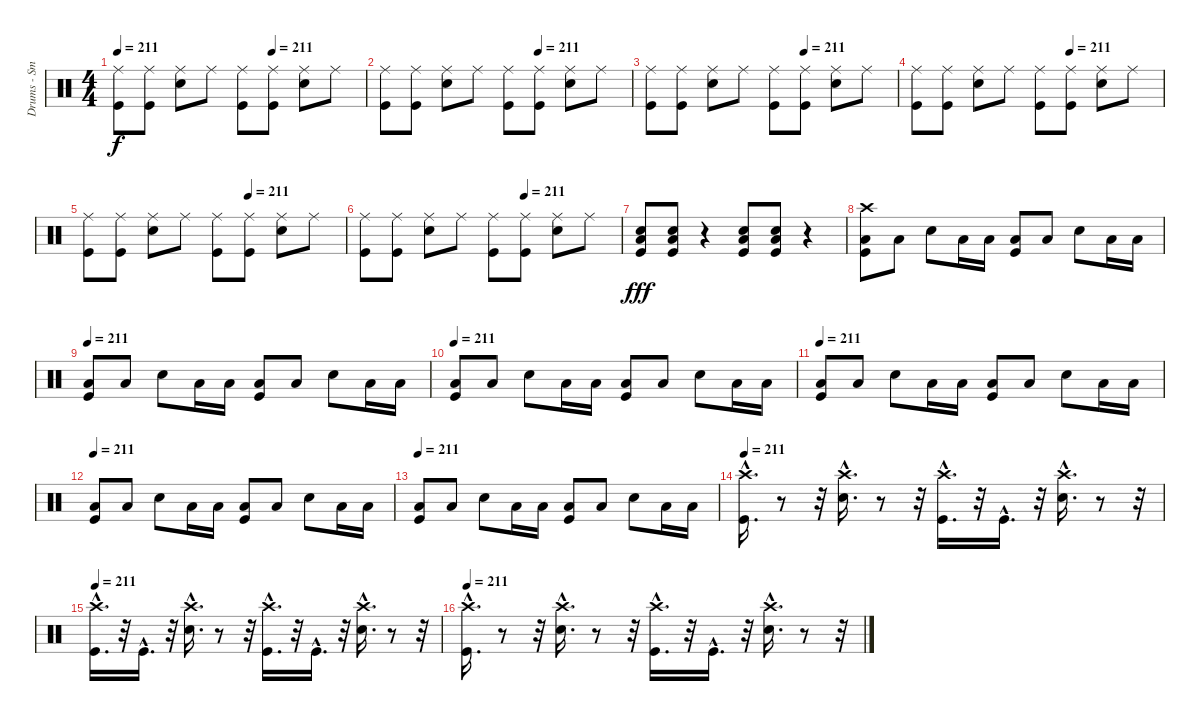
\track ("Drums - Smelly" "Drums - Sm") {instrument percussion}
\staff {score}
\articulation defaults
\ts (4 4)
\tempo 211
\tempo (211 0.625)
\clef neutral
\ks c
("Kick (hit)" "Ride (middle)").8{dy f} ("Ride (middle)" "Kick (hit)").8 ("Ride (middle)" "Electric Snare (hit)").8 "Ride (middle)".8 ("Ride (middle)" "Kick (hit)").8 ("Kick (hit)" "Ride (middle)").8 ("Electric Snare (hit)" "Ride (middle)").8 "Ride (middle)".8 |
\tempo (211 0.625)
("Kick (hit)" "Ride (middle)").8 ("Ride (middle)" "Kick (hit)").8 ("Electric Snare (hit)" "Ride (middle)").8 "Ride (middle)".8 ("Kick (hit)" "Ride (middle)").8 ("Kick (hit)" "Ride (middle)").8 ("Ride (middle)" "Electric Snare (hit)").8 "Ride (middle)".8 |
\tempo (211 0.625)
("Ride (middle)" "Kick (hit)").8 ("Kick (hit)" "Ride (middle)").8 ("Electric Snare (hit)" "Ride (middle)").8 "Ride (middle)".8 ("Kick (hit)" "Ride (middle)").8 ("Ride (middle)" "Kick (hit)").8 ("Electric Snare (hit)" "Ride (middle)").8 "Ride (middle)".8 |
\tempo (211 0.625)
("Kick (hit)" "Ride (middle)").8 ("Ride (middle)" "Kick (hit)").8 ("Electric Snare (hit)" "Ride (middle)").8 "Ride (middle)".8 ("Kick (hit)" "Ride (middle)").8 ("Kick (hit)" "Ride (middle)").8 ("Ride (middle)" "Electric Snare (hit)").8 "Ride (middle)".8 |
\tempo (211 0.625)
("Ride (middle)" "Kick (hit)").8 ("Kick (hit)" "Ride (middle)").8 ("Electric Snare (hit)" "Ride (middle)").8 "Ride (middle)".8 ("Ride (middle)" "Kick (hit)").8 ("Kick (hit)" "Ride (middle)").8 ("Electric Snare (hit)" "Ride (middle)").8 "Ride (middle)".8 |
\tempo (211 0.625)
("Kick (hit)" "Ride (middle)").8 ("Ride (middle)" "Kick (hit)").8 ("Electric Snare (hit)" "Ride (middle)").8 "Ride (middle)".8 ("Kick (hit)" "Ride (middle)").8 ("Kick (hit)" "Ride (middle)").8 ("Ride (middle)" "Electric Snare (hit)").8 "Ride (middle)".8 |
("Electric Snare (hit)" "Kick (hit)" "Low Floor Tom (hit)").8{dy fff} ("Electric Snare (hit)" "Low Floor Tom (hit)" "Kick (hit)").8 r.4 ("Kick (hit)" "Low Floor Tom (hit)" "Electric Snare (hit)").8 ("Kick (hit)" "Electric Snare (hit)" "Low Floor Tom (hit)").8 r.4 |
("Kick (hit)" "Crash high (hit)" "Low Floor Tom (hit)").8 "Low Floor Tom (hit)".8 "Electric Snare (hit)".8 "Low Floor Tom (hit)".16 "Low Floor Tom (hit)".16 ("Kick (hit)" "Low Floor Tom (hit)").8 "Low Floor Tom (hit)".8 "Electric Snare (hit)".8 "Low Floor Tom (hit)".16 "Low Floor Tom (hit)".16 |
\tempo 211
("Kick (hit)" "Low Floor Tom (hit)").8 "Low Floor Tom (hit)".8 "Electric Snare (hit)".8 "Low Floor Tom (hit)".16 "Low Floor Tom (hit)".16 ("Low Floor Tom (hit)" "Kick (hit)").8 "Low Floor Tom (hit)".8 "Electric Snare (hit)".8 "Low Floor Tom (hit)".16 "Low Floor Tom (hit)".16 |
\tempo 211
("Low Floor Tom (hit)" "Kick (hit)").8 "Low Floor Tom (hit)".8 "Electric Snare (hit)".8 "Low Floor Tom (hit)".16 "Low Floor Tom (hit)".16 ("Low Floor Tom (hit)" "Kick (hit)").8 "Low Floor Tom (hit)".8 "Electric Snare (hit)".8 "Low Floor Tom (hit)".16 "Low Floor Tom (hit)".16 |
\tempo 211
("Low Floor Tom (hit)" "Kick (hit)").8 "Low Floor Tom (hit)".8 "Electric Snare (hit)".8 "Low Floor Tom (hit)".16 "Low Floor Tom (hit)".16 ("Low Floor Tom (hit)" "Kick (hit)").8 "Low Floor Tom (hit)".8 "Electric Snare (hit)".8 "Low Floor Tom (hit)".16 "Low Floor Tom (hit)".16 |
\tempo 211
("Low Floor Tom (hit)" "Kick (hit)").8 "Low Floor Tom (hit)".8 "Electric Snare (hit)".8 "Low Floor Tom (hit)".16 "Low Floor Tom (hit)".16 ("Low Floor Tom (hit)" "Kick (hit)").8 "Low Floor Tom (hit)".8 "Electric Snare (hit)".8 "Low Floor Tom (hit)".16 "Low Floor Tom (hit)".16 |
\tempo 211
("Low Floor Tom (hit)" "Kick (hit)").8 "Low Floor Tom (hit)".8 "Electric Snare (hit)".8 "Low Floor Tom (hit)".16 "Low Floor Tom (hit)".16 ("Kick (hit)" "Low Floor Tom (hit)").8 "Low Floor Tom (hit)".8 "Electric Snare (hit)".8 "Low Floor Tom (hit)".16 "Low Floor Tom (hit)".16 |
\tempo 211
("Kick (hit)"{hac} "Crash high (hit)"{hac}).16{d} r.8 r.32 ("Crash high (hit)"{hac} "Electric Snare (hit)"{hac}).16{d} r.8 r.32 ("Crash high (hit)"{hac} "Kick (hit)"{hac}).16{d} r.32 "Kick (hit)"{hac}.16{d} r.32 ("Crash high (hit)"{hac} "Electric Snare (hit)"{hac}).16{d} r.8 r.32 |
\tempo 211
("Kick (hit)"{hac} "Crash high (hit)"{hac}).16{d} r.32 "Kick (hit)"{hac}.16{d} r.32 ("Electric Snare (hit)"{hac} "Crash high (hit)"{hac}).16{d} r.8 r.32 ("Crash high (hit)"{hac} "Kick (hit)"{hac}).16{d} r.32 "Kick (hit)"{hac}.16{d} r.32 ("Electric Snare (hit)"{hac} "Crash high (hit)"{hac}).16{d} r.8 r.32 |
\tempo 211
("Kick (hit)"{hac} "Crash high (hit)"{hac}).16{d} r.8 r.32 ("Crash high (hit)"{hac} "Electric Snare (hit)"{hac}).16{d} r.8 r.32 ("Crash high (hit)"{hac} "Kick (hit)"{hac}).16{d} r.32 "Kick (hit)"{hac}.16{d} r.32 ("Crash high (hit)"{hac} "Electric Snare (hit)"{hac}).16{d} r.8 r.32
